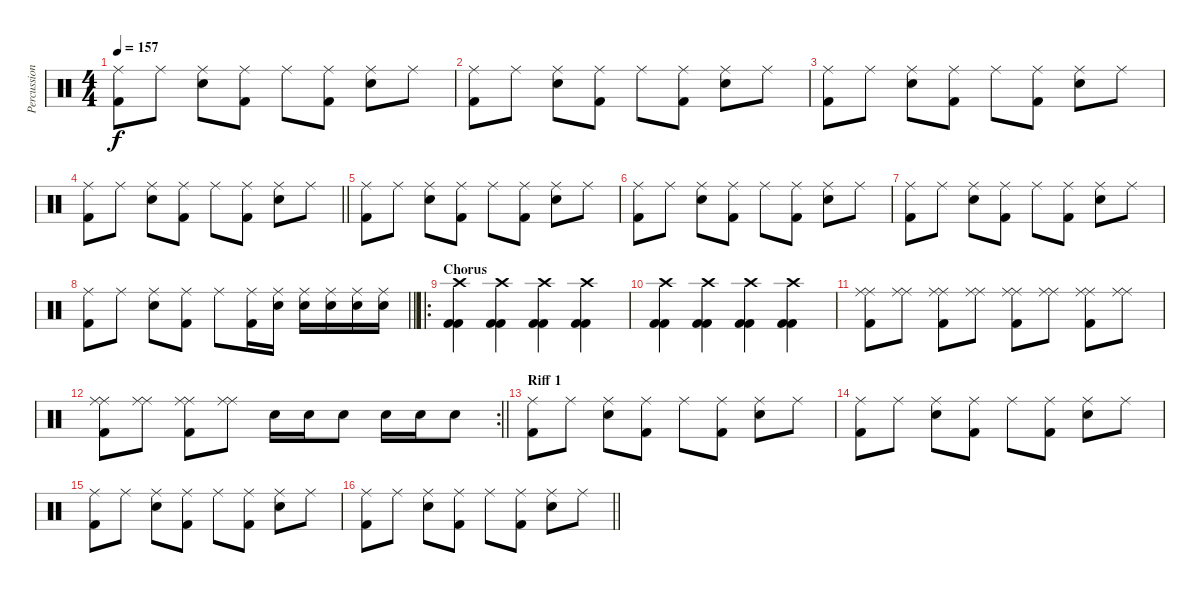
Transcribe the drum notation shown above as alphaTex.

\track ("Percussion" "Percussion") {instrument percussion}
\staff {score}
\articulation defaults
\ts (4 4)
\tempo 157
\clef neutral
\ks c
("Kick (hit) 2" "Ride (middle)").8{dy f} "Ride (middle)".8 ("Snare (hit) 2" "Ride (middle)").8 ("Kick (hit) 2" "Ride (middle)").8 "Ride (middle)".8 ("Kick (hit) 2" "Ride (middle)").8 ("Snare (hit) 2" "Ride (middle)").8 "Ride (middle)".8 |
("Kick (hit) 2" "Ride (middle)").8 "Ride (middle)".8 ("Snare (hit) 2" "Ride (middle)").8 ("Kick (hit) 2" "Ride (middle)").8 "Ride (middle)".8 ("Kick (hit) 2" "Ride (middle)").8 ("Snare (hit) 2" "Ride (middle)").8 "Ride (middle)".8 |
("Kick (hit) 2" "Ride (middle)").8 "Ride (middle)".8 ("Snare (hit) 2" "Ride (middle)").8 ("Kick (hit) 2" "Ride (middle)").8 "Ride (middle)".8 ("Kick (hit) 2" "Ride (middle)").8 ("Snare (hit) 2" "Ride (middle)").8 "Ride (middle)".8 |
\barLineRight lightlight
("Kick (hit) 2" "Ride (middle)").8 "Ride (middle)".8 ("Snare (hit) 2" "Ride (middle)").8 ("Kick (hit) 2" "Ride (middle)").8 "Ride (middle)".8 ("Kick (hit) 2" "Ride (middle)").8 ("Snare (hit) 2" "Ride (middle)").8 "Ride (middle)".8 |
("Kick (hit) 2" "Ride (middle)").8 "Ride (middle)".8 ("Snare (hit) 2" "Ride (middle)").8 ("Kick (hit) 2" "Ride (middle)").8 "Ride (middle)".8 ("Kick (hit) 2" "Ride (middle)").8 ("Snare (hit) 2" "Ride (middle)").8 "Ride (middle)".8 |
("Kick (hit) 2" "Ride (middle)").8 "Ride (middle)".8 ("Snare (hit) 2" "Ride (middle)").8 ("Kick (hit) 2" "Ride (middle)").8 "Ride (middle)".8 ("Kick (hit) 2" "Ride (middle)").8 ("Snare (hit) 2" "Ride (middle)").8 "Ride (middle)".8 |
("Kick (hit) 2" "Ride (middle)").8 "Ride (middle)".8 ("Snare (hit) 2" "Ride (middle)").8 ("Kick (hit) 2" "Ride (middle)").8 "Ride (middle)".8 ("Kick (hit) 2" "Ride (middle)").8 ("Snare (hit) 2" "Ride (middle)").8 "Ride (middle)".8 |
\barLineRight lightlight
("Kick (hit) 2" "Ride (middle)").8 "Ride (middle)".8 ("Snare (hit) 2" "Ride (middle)").8 ("Kick (hit) 2" "Ride (middle)").8 "Ride (middle)".8 ("Kick (hit) 2" "Ride (middle)").16 ("Snare (hit) 2" "Ride (middle)").16 ("Snare (hit) 2" "Ride (middle)").16 ("Snare (hit) 2" "Ride (middle)").16 ("Snare (hit) 2" "Ride (middle)").16 ("Snare (hit) 2" "Ride (middle)").16 |
\ro
\section ("" "Chorus")
("Kick (hit) 2" "Kick (hit) 2" "Crash high (hit)").4 ("Kick (hit) 2" "Kick (hit) 2" "Crash high (hit)").4 ("Kick (hit) 2" "Kick (hit) 2" "Crash high (hit)").4 ("Kick (hit) 2" "Kick (hit) 2" "Crash high (hit)").4 |
("Kick (hit) 2" "Kick (hit) 2" "Crash high (hit)").4 ("Kick (hit) 2" "Kick (hit) 2" "Crash high (hit)").4 ("Kick (hit) 2" "Kick (hit) 2" "Crash high (hit)").4 ("Kick (hit) 2" "Kick (hit) 2" "Crash high (hit)").4 |
("Ride (middle)" "Kick (hit) 2" "Ride (middle)").8 ("Ride (middle)" "Ride (middle)").8 ("Ride (middle)" "Kick (hit) 2" "Ride (middle)").8 ("Ride (middle)" "Ride (middle)").8 ("Ride (middle)" "Kick (hit) 2" "Ride (middle)").8 ("Ride (middle)" "Ride (middle)").8 ("Ride (middle)" "Kick (hit) 2" "Ride (middle)").8 ("Ride (middle)" "Ride (middle)").8 |
\rc 2
\barLineRight lightlight
("Ride (middle)" "Kick (hit) 2" "Ride (middle)").8 ("Ride (middle)" "Ride (middle)").8 ("Ride (middle)" "Kick (hit) 2" "Ride (middle)").8 ("Ride (middle)" "Ride (middle)").8 "Snare (hit) 2".16 "Snare (hit) 2".16 "Snare (hit) 2".8 "Snare (hit) 2".16 "Snare (hit) 2".16 "Snare (hit) 2".8 |
\section ("" "Riff 1")
("Kick (hit) 2" "Ride (middle)").8 "Ride (middle)".8 ("Snare (hit) 2" "Ride (middle)").8 ("Kick (hit) 2" "Ride (middle)").8 "Ride (middle)".8 ("Kick (hit) 2" "Ride (middle)").8 ("Snare (hit) 2" "Ride (middle)").8 "Ride (middle)".8 |
("Kick (hit) 2" "Ride (middle)").8 "Ride (middle)".8 ("Snare (hit) 2" "Ride (middle)").8 ("Kick (hit) 2" "Ride (middle)").8 "Ride (middle)".8 ("Kick (hit) 2" "Ride (middle)").8 ("Snare (hit) 2" "Ride (middle)").8 "Ride (middle)".8 |
("Kick (hit) 2" "Ride (middle)").8 "Ride (middle)".8 ("Snare (hit) 2" "Ride (middle)").8 ("Kick (hit) 2" "Ride (middle)").8 "Ride (middle)".8 ("Kick (hit) 2" "Ride (middle)").8 ("Snare (hit) 2" "Ride (middle)").8 "Ride (middle)".8 |
\barLineRight lightlight
("Kick (hit) 2" "Ride (middle)").8 "Ride (middle)".8 ("Snare (hit) 2" "Ride (middle)").8 ("Kick (hit) 2" "Ride (middle)").8 "Ride (middle)".8 ("Kick (hit) 2" "Ride (middle)").8 ("Snare (hit) 2" "Ride (middle)").8 "Ride (middle)".8
